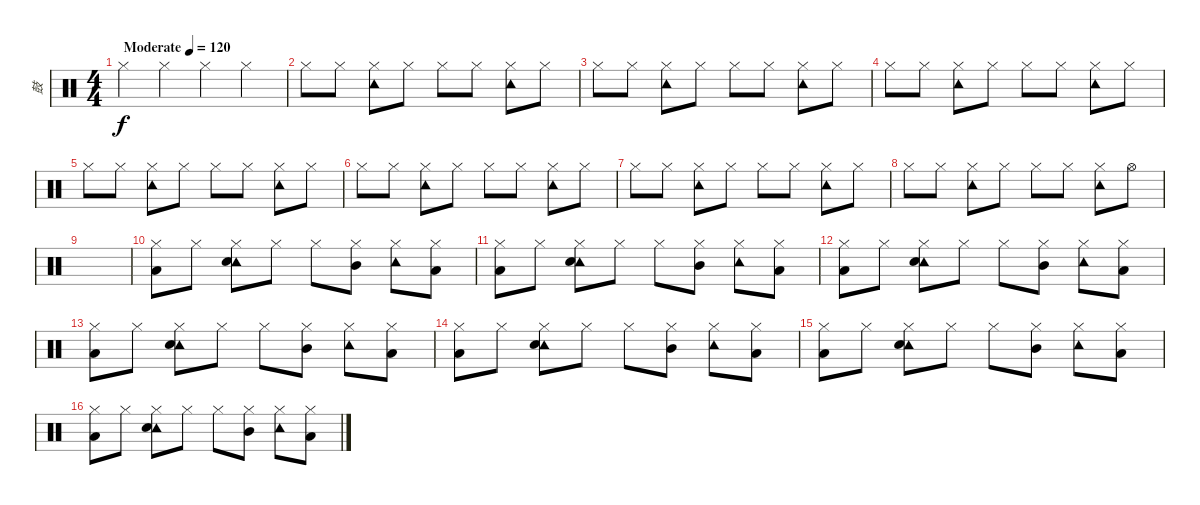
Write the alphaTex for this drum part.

\track ("鼓" "鼓") {instrument percussion}
\staff {score}
\articulation defaults
\ts (4 4)
\tempo (120 "Moderate")
\clef neutral
\ks c "Hi-Hat (closed)".4{dy f} "Hi-Hat (closed)".4 "Hi-Hat (closed)".4 "Hi-Hat (closed)".4
|
"Hi-Hat (closed)".8 "Hi-Hat (closed)".8 ("Hi-Hat (closed)" "Tambourine (hit)").8 "Hi-Hat (closed)".8 "Hi-Hat (closed)".8 "Hi-Hat (closed)".8 ("Hi-Hat (closed)" "Tambourine (hit)").8 "Hi-Hat (closed)".8 |
"Hi-Hat (closed)".8 "Hi-Hat (closed)".8 ("Hi-Hat (closed)" "Tambourine (hit)").8 "Hi-Hat (closed)".8 "Hi-Hat (closed)".8 "Hi-Hat (closed)".8 ("Hi-Hat (closed)" "Tambourine (hit)").8 "Hi-Hat (closed)".8 |
"Hi-Hat (closed)".8 "Hi-Hat (closed)".8 ("Hi-Hat (closed)" "Tambourine (hit)").8 "Hi-Hat (closed)".8 "Hi-Hat (closed)".8 "Hi-Hat (closed)".8 ("Hi-Hat (closed)" "Tambourine (hit)").8 "Hi-Hat (closed)".8 |
"Hi-Hat (closed)".8 "Hi-Hat (closed)".8 ("Hi-Hat (closed)" "Tambourine (hit)").8 "Hi-Hat (closed)".8 "Hi-Hat (closed)".8 "Hi-Hat (closed)".8 ("Hi-Hat (closed)" "Tambourine (hit)").8 "Hi-Hat (closed)".8 |
"Hi-Hat (closed)".8 "Hi-Hat (closed)".8 ("Hi-Hat (closed)" "Tambourine (hit)").8 "Hi-Hat (closed)".8 "Hi-Hat (closed)".8 "Hi-Hat (closed)".8 ("Hi-Hat (closed)" "Tambourine (hit)").8 "Hi-Hat (closed)".8 |
"Hi-Hat (closed)".8 "Hi-Hat (closed)".8 ("Hi-Hat (closed)" "Tambourine (hit)").8 "Hi-Hat (closed)".8 "Hi-Hat (closed)".8 "Hi-Hat (closed)".8 ("Hi-Hat (closed)" "Tambourine (hit)").8 "Hi-Hat (closed)".8 |
"Hi-Hat (closed)".8 "Hi-Hat (closed)".8 ("Hi-Hat (closed)" "Tambourine (hit)").8 "Hi-Hat (closed)".8 "Hi-Hat (closed)".8 "Hi-Hat (closed)".8 ("Hi-Hat (closed)" "Tambourine (hit)").8 "Hi-Hat (open)".8 |
|
("Hi-Hat (closed)" "Low Floor Tom (hit)").8 "Hi-Hat (closed)".8 ("Hi-Hat (closed)" "Tambourine (hit)" "Electric Snare (hit)").8 "Hi-Hat (closed)".8 "Hi-Hat (closed)".8 ("Hi-Hat (closed)" "Mid Tom (hit)").8 ("Hi-Hat (closed)" "Tambourine (hit)").8 ("Hi-Hat (closed)" "Low Tom (hit)").8 |
("Hi-Hat (closed)" "Low Floor Tom (hit)").8 "Hi-Hat (closed)".8 ("Hi-Hat (closed)" "Tambourine (hit)" "Electric Snare (hit)").8 "Hi-Hat (closed)".8 "Hi-Hat (closed)".8 ("Hi-Hat (closed)" "Mid Tom (hit)").8 ("Hi-Hat (closed)" "Tambourine (hit)").8 ("Hi-Hat (closed)" "Low Tom (hit)").8 |
("Hi-Hat (closed)" "Low Floor Tom (hit)").8 "Hi-Hat (closed)".8 ("Hi-Hat (closed)" "Tambourine (hit)" "Electric Snare (hit)").8 "Hi-Hat (closed)".8 "Hi-Hat (closed)".8 ("Hi-Hat (closed)" "Mid Tom (hit)").8 ("Hi-Hat (closed)" "Tambourine (hit)").8 ("Hi-Hat (closed)" "Low Tom (hit)").8 |
("Hi-Hat (closed)" "Low Floor Tom (hit)").8 "Hi-Hat (closed)".8 ("Hi-Hat (closed)" "Tambourine (hit)" "Electric Snare (hit)").8 "Hi-Hat (closed)".8 "Hi-Hat (closed)".8 ("Hi-Hat (closed)" "Mid Tom (hit)").8 ("Hi-Hat (closed)" "Tambourine (hit)").8 ("Hi-Hat (closed)" "Low Tom (hit)").8 |
("Hi-Hat (closed)" "Low Floor Tom (hit)").8 "Hi-Hat (closed)".8 ("Hi-Hat (closed)" "Tambourine (hit)" "Electric Snare (hit)").8 "Hi-Hat (closed)".8 "Hi-Hat (closed)".8 ("Hi-Hat (closed)" "Mid Tom (hit)").8 ("Hi-Hat (closed)" "Tambourine (hit)").8 ("Hi-Hat (closed)" "Low Tom (hit)").8 |
("Hi-Hat (closed)" "Low Floor Tom (hit)").8 "Hi-Hat (closed)".8 ("Hi-Hat (closed)" "Tambourine (hit)" "Electric Snare (hit)").8 "Hi-Hat (closed)".8 "Hi-Hat (closed)".8 ("Hi-Hat (closed)" "Mid Tom (hit)").8 ("Hi-Hat (closed)" "Tambourine (hit)").8 ("Hi-Hat (closed)" "Low Tom (hit)").8 |
("Hi-Hat (closed)" "Low Floor Tom (hit)").8 "Hi-Hat (closed)".8 ("Hi-Hat (closed)" "Tambourine (hit)" "Electric Snare (hit)").8 "Hi-Hat (closed)".8 "Hi-Hat (closed)".8 ("Hi-Hat (closed)" "Mid Tom (hit)").8 ("Hi-Hat (closed)" "Tambourine (hit)").8 ("Hi-Hat (closed)" "Low Tom (hit)").8
